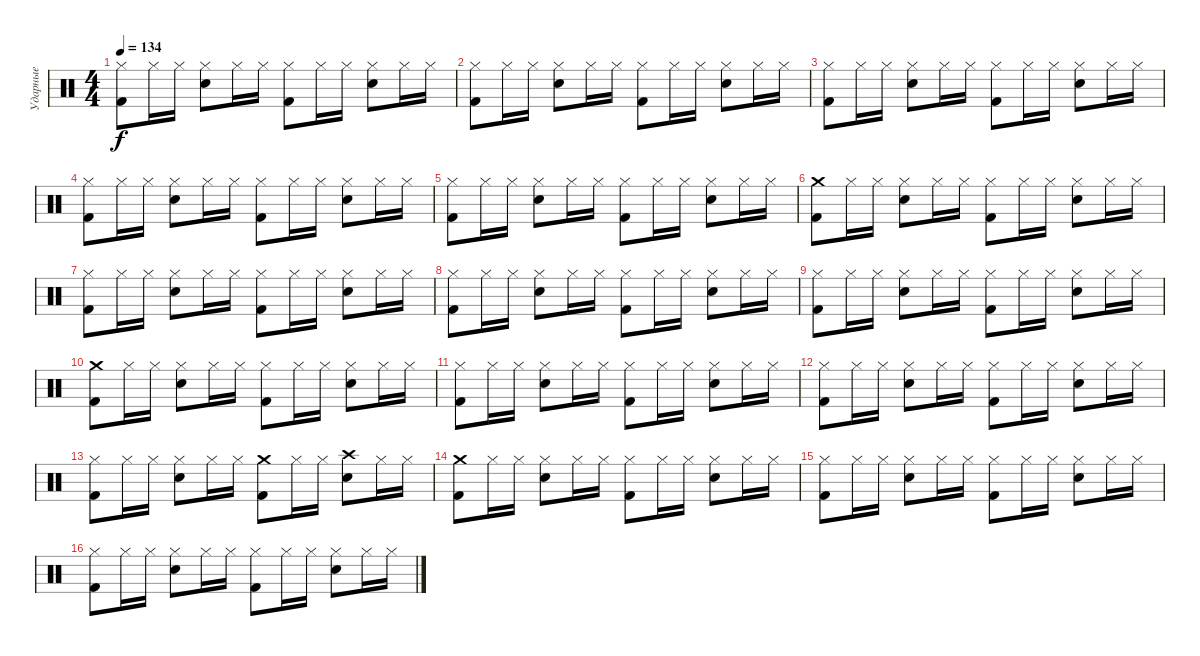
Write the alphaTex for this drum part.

\track ("Ударные" "Ударные") {instrument percussion}
\staff {score}
\articulation defaults
\ts (4 4)
\tempo 134
\clef neutral
\ks c
("Hi-Hat (closed)" "Kick (hit) 2").8{dy f} "Hi-Hat (closed)".16 "Hi-Hat (closed)".16 ("Hi-Hat (closed)" "Snare (hit) 2").8 "Hi-Hat (closed)".16 "Hi-Hat (closed)".16 ("Hi-Hat (closed)" "Kick (hit) 2").8 "Hi-Hat (closed)".16 "Hi-Hat (closed)".16 ("Hi-Hat (closed)" "Snare (hit) 2").8 "Hi-Hat (closed)".16 "Hi-Hat (closed)".16 |
("Hi-Hat (closed)" "Kick (hit) 2").8 "Hi-Hat (closed)".16 "Hi-Hat (closed)".16 ("Hi-Hat (closed)" "Snare (hit) 2").8 "Hi-Hat (closed)".16 "Hi-Hat (closed)".16 ("Hi-Hat (closed)" "Kick (hit) 2").8 "Hi-Hat (closed)".16 "Hi-Hat (closed)".16 ("Hi-Hat (closed)" "Snare (hit) 2").8 "Hi-Hat (closed)".16 "Hi-Hat (closed)".16 |
("Hi-Hat (closed)" "Kick (hit) 2").8 "Hi-Hat (closed)".16 "Hi-Hat (closed)".16 ("Hi-Hat (closed)" "Snare (hit) 2").8 "Hi-Hat (closed)".16 "Hi-Hat (closed)".16 ("Hi-Hat (closed)" "Kick (hit) 2").8 "Hi-Hat (closed)".16 "Hi-Hat (closed)".16 ("Hi-Hat (closed)" "Snare (hit) 2").8 "Hi-Hat (closed)".16 "Hi-Hat (closed)".16 |
("Hi-Hat (closed)" "Kick (hit) 2").8 "Hi-Hat (closed)".16 "Hi-Hat (closed)".16 ("Hi-Hat (closed)" "Snare (hit) 2").8 "Hi-Hat (closed)".16 "Hi-Hat (closed)".16 ("Hi-Hat (closed)" "Kick (hit) 2").8 "Hi-Hat (closed)".16 "Hi-Hat (closed)".16 ("Hi-Hat (closed)" "Snare (hit) 2").8 "Hi-Hat (closed)".16 "Hi-Hat (closed)".16 |
("Hi-Hat (closed)" "Kick (hit) 2").8 "Hi-Hat (closed)".16 "Hi-Hat (closed)".16 ("Hi-Hat (closed)" "Snare (hit) 2").8 "Hi-Hat (closed)".16 "Hi-Hat (closed)".16 ("Hi-Hat (closed)" "Kick (hit) 2").8 "Hi-Hat (closed)".16 "Hi-Hat (closed)".16 ("Hi-Hat (closed)" "Snare (hit) 2").8 "Hi-Hat (closed)".16 "Hi-Hat (closed)".16 |
("Crash medium (hit)" "Kick (hit) 2").8 "Hi-Hat (closed)".16 "Hi-Hat (closed)".16 ("Hi-Hat (closed)" "Snare (hit) 2").8 "Hi-Hat (closed)".16 "Hi-Hat (closed)".16 ("Hi-Hat (closed)" "Kick (hit) 2").8 "Hi-Hat (closed)".16 "Hi-Hat (closed)".16 ("Hi-Hat (closed)" "Snare (hit) 2").8 "Hi-Hat (closed)".16 "Hi-Hat (closed)".16 |
("Hi-Hat (closed)" "Kick (hit) 2").8 "Hi-Hat (closed)".16 "Hi-Hat (closed)".16 ("Hi-Hat (closed)" "Snare (hit) 2").8 "Hi-Hat (closed)".16 "Hi-Hat (closed)".16 ("Hi-Hat (closed)" "Kick (hit) 2").8 "Hi-Hat (closed)".16 "Hi-Hat (closed)".16 ("Hi-Hat (closed)" "Snare (hit) 2").8 "Hi-Hat (closed)".16 "Hi-Hat (closed)".16 |
("Hi-Hat (closed)" "Kick (hit) 2").8 "Hi-Hat (closed)".16 "Hi-Hat (closed)".16 ("Hi-Hat (closed)" "Snare (hit) 2").8 "Hi-Hat (closed)".16 "Hi-Hat (closed)".16 ("Hi-Hat (closed)" "Kick (hit) 2").8 "Hi-Hat (closed)".16 "Hi-Hat (closed)".16 ("Hi-Hat (closed)" "Snare (hit) 2").8 "Hi-Hat (closed)".16 "Hi-Hat (closed)".16 |
("Hi-Hat (closed)" "Kick (hit) 2").8 "Hi-Hat (closed)".16 "Hi-Hat (closed)".16 ("Hi-Hat (closed)" "Snare (hit) 2").8 "Hi-Hat (closed)".16 "Hi-Hat (closed)".16 ("Hi-Hat (closed)" "Kick (hit) 2").8 "Hi-Hat (closed)".16 "Hi-Hat (closed)".16 ("Hi-Hat (closed)" "Snare (hit) 2").8 "Hi-Hat (closed)".16 "Hi-Hat (closed)".16 |
("Crash medium (hit)" "Kick (hit) 2").8 "Hi-Hat (closed)".16 "Hi-Hat (closed)".16 ("Hi-Hat (closed)" "Snare (hit) 2").8 "Hi-Hat (closed)".16 "Hi-Hat (closed)".16 ("Hi-Hat (closed)" "Kick (hit) 2").8 "Hi-Hat (closed)".16 "Hi-Hat (closed)".16 ("Hi-Hat (closed)" "Snare (hit) 2").8 "Hi-Hat (closed)".16 "Hi-Hat (closed)".16 |
("Hi-Hat (closed)" "Kick (hit) 2").8 "Hi-Hat (closed)".16 "Hi-Hat (closed)".16 ("Hi-Hat (closed)" "Snare (hit) 2").8 "Hi-Hat (closed)".16 "Hi-Hat (closed)".16 ("Hi-Hat (closed)" "Kick (hit) 2").8 "Hi-Hat (closed)".16 "Hi-Hat (closed)".16 ("Hi-Hat (closed)" "Snare (hit) 2").8 "Hi-Hat (closed)".16 "Hi-Hat (closed)".16 |
("Hi-Hat (closed)" "Kick (hit) 2").8 "Hi-Hat (closed)".16 "Hi-Hat (closed)".16 ("Hi-Hat (closed)" "Snare (hit) 2").8 "Hi-Hat (closed)".16 "Hi-Hat (closed)".16 ("Hi-Hat (closed)" "Kick (hit) 2").8 "Hi-Hat (closed)".16 "Hi-Hat (closed)".16 ("Hi-Hat (closed)" "Snare (hit) 2").8 "Hi-Hat (closed)".16 "Hi-Hat (closed)".16 |
("Hi-Hat (closed)" "Kick (hit) 2").8 "Hi-Hat (closed)".16 "Hi-Hat (closed)".16 ("Hi-Hat (closed)" "Snare (hit) 2").8 "Hi-Hat (closed)".16 "Hi-Hat (closed)".16 ("Crash medium (hit)" "Kick (hit) 2").8 "Hi-Hat (closed)".16 "Hi-Hat (closed)".16 ("Crash high (hit)" "Snare (hit) 2").8 "Hi-Hat (closed)".16 "Hi-Hat (closed)".16 |
("Crash medium (hit)" "Kick (hit) 2").8 "Hi-Hat (closed)".16 "Hi-Hat (closed)".16 ("Hi-Hat (closed)" "Snare (hit) 2").8 "Hi-Hat (closed)".16 "Hi-Hat (closed)".16 ("Hi-Hat (closed)" "Kick (hit) 2").8 "Hi-Hat (closed)".16 "Hi-Hat (closed)".16 ("Hi-Hat (closed)" "Snare (hit) 2").8 "Hi-Hat (closed)".16 "Hi-Hat (closed)".16 |
("Hi-Hat (closed)" "Kick (hit) 2").8 "Hi-Hat (closed)".16 "Hi-Hat (closed)".16 ("Hi-Hat (closed)" "Snare (hit) 2").8 "Hi-Hat (closed)".16 "Hi-Hat (closed)".16 ("Hi-Hat (closed)" "Kick (hit) 2").8 "Hi-Hat (closed)".16 "Hi-Hat (closed)".16 ("Hi-Hat (closed)" "Snare (hit) 2").8 "Hi-Hat (closed)".16 "Hi-Hat (closed)".16 |
("Hi-Hat (closed)" "Kick (hit) 2").8 "Hi-Hat (closed)".16 "Hi-Hat (closed)".16 ("Hi-Hat (closed)" "Snare (hit) 2").8 "Hi-Hat (closed)".16 "Hi-Hat (closed)".16 ("Hi-Hat (closed)" "Kick (hit) 2").8 "Hi-Hat (closed)".16 "Hi-Hat (closed)".16 ("Hi-Hat (closed)" "Snare (hit) 2").8 "Hi-Hat (closed)".16 "Hi-Hat (closed)".16
